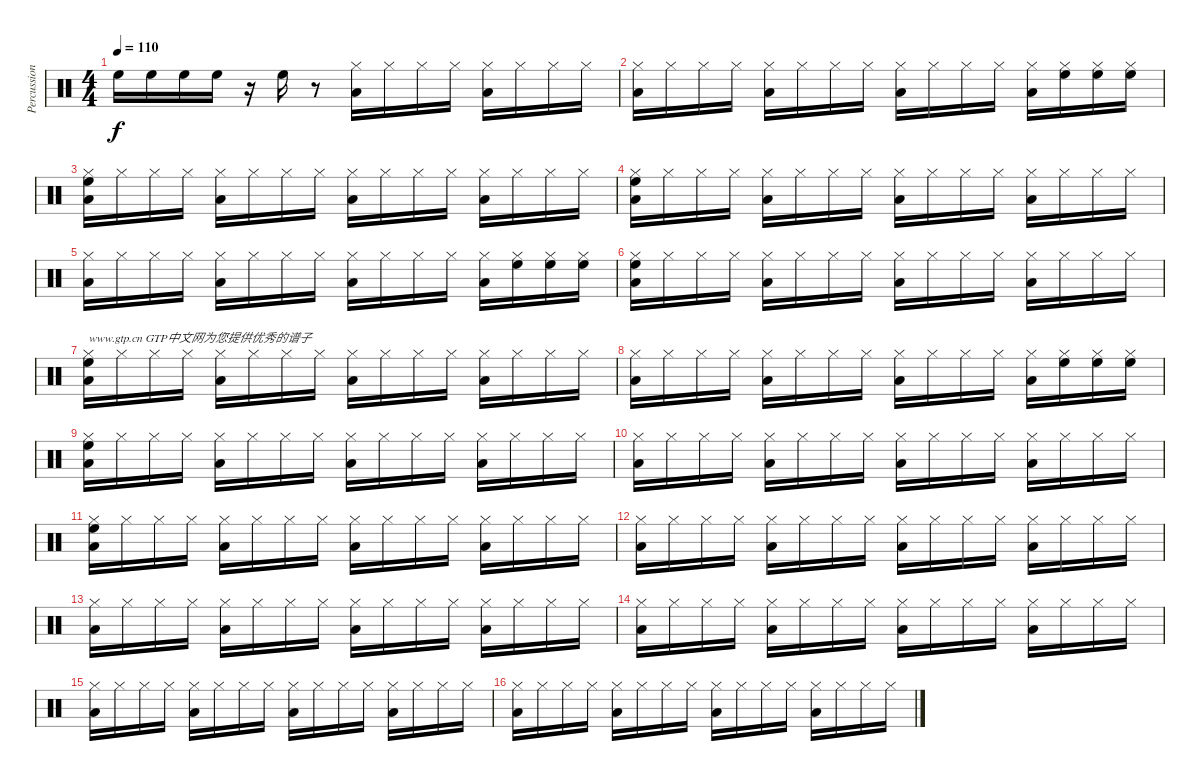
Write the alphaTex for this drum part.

\track ("Percussions" "Percussion") {instrument percussion}
\staff {score}
\articulation defaults
\ts (4 4)
\tempo 110
\clef neutral
\ks c "High Floor Tom (hit)".16{dy f} "High Floor Tom (hit)".16 "High Floor Tom (hit)".16 "High Floor Tom (hit)".16
r.16 "High Floor Tom (hit)".16 r.8 ("Hi-Hat (closed)" "Low Floor Tom (hit)").16 "Hi-Hat (closed)".16 "Hi-Hat (closed)".16 "Hi-Hat (closed)".16 ("Hi-Hat (closed)" "Low Floor Tom (hit)").16 "Hi-Hat (closed)".16 "Hi-Hat (closed)".16 "Hi-Hat (closed)".16 |
("Hi-Hat (closed)" "Low Floor Tom (hit)").16 "Hi-Hat (closed)".16 "Hi-Hat (closed)".16 "Hi-Hat (closed)".16 ("Hi-Hat (closed)" "Low Floor Tom (hit)").16 "Hi-Hat (closed)".16 "Hi-Hat (closed)".16 "Hi-Hat (closed)".16 ("Hi-Hat (closed)" "Low Floor Tom (hit)").16 "Hi-Hat (closed)".16 "Hi-Hat (closed)".16 "Hi-Hat (closed)".16 ("Hi-Hat (closed)" "Low Floor Tom (hit)").16 ("Hi-Hat (closed)" "High Floor Tom (hit)").16 ("Hi-Hat (closed)" "High Floor Tom (hit)").16 ("Hi-Hat (closed)" "High Floor Tom (hit)").16 |
("Hi-Hat (closed)" "Low Floor Tom (hit)" "High Floor Tom (hit)").16 "Hi-Hat (closed)".16 "Hi-Hat (closed)".16 "Hi-Hat (closed)".16 ("Hi-Hat (closed)" "Low Floor Tom (hit)").16 "Hi-Hat (closed)".16 "Hi-Hat (closed)".16 "Hi-Hat (closed)".16 ("Hi-Hat (closed)" "Low Floor Tom (hit)").16 "Hi-Hat (closed)".16 "Hi-Hat (closed)".16 "Hi-Hat (closed)".16 ("Hi-Hat (closed)" "Low Floor Tom (hit)").16 "Hi-Hat (closed)".16 "Hi-Hat (closed)".16 "Hi-Hat (closed)".16 |
("Hi-Hat (closed)" "Low Floor Tom (hit)" "High Floor Tom (hit)").16 "Hi-Hat (closed)".16 "Hi-Hat (closed)".16 "Hi-Hat (closed)".16 ("Hi-Hat (closed)" "Low Floor Tom (hit)").16 "Hi-Hat (closed)".16 "Hi-Hat (closed)".16 "Hi-Hat (closed)".16 ("Hi-Hat (closed)" "Low Floor Tom (hit)").16 "Hi-Hat (closed)".16 "Hi-Hat (closed)".16 "Hi-Hat (closed)".16 ("Hi-Hat (closed)" "Low Floor Tom (hit)").16 "Hi-Hat (closed)".16 "Hi-Hat (closed)".16 "Hi-Hat (closed)".16 |
("Hi-Hat (closed)" "Low Floor Tom (hit)").16 "Hi-Hat (closed)".16 "Hi-Hat (closed)".16 "Hi-Hat (closed)".16 ("Hi-Hat (closed)" "Low Floor Tom (hit)").16 "Hi-Hat (closed)".16 "Hi-Hat (closed)".16 "Hi-Hat (closed)".16 ("Hi-Hat (closed)" "Low Floor Tom (hit)").16 "Hi-Hat (closed)".16 "Hi-Hat (closed)".16 "Hi-Hat (closed)".16 ("Hi-Hat (closed)" "Low Floor Tom (hit)").16 ("Hi-Hat (closed)" "High Floor Tom (hit)").16 ("Hi-Hat (closed)" "High Floor Tom (hit)").16 ("Hi-Hat (closed)" "High Floor Tom (hit)").16 |
("Hi-Hat (closed)" "Low Floor Tom (hit)" "High Floor Tom (hit)").16 "Hi-Hat (closed)".16 "Hi-Hat (closed)".16 "Hi-Hat (closed)".16 ("Hi-Hat (closed)" "Low Floor Tom (hit)").16 "Hi-Hat (closed)".16 "Hi-Hat (closed)".16 "Hi-Hat (closed)".16 ("Hi-Hat (closed)" "Low Floor Tom (hit)").16 "Hi-Hat (closed)".16 "Hi-Hat (closed)".16 "Hi-Hat (closed)".16 ("Hi-Hat (closed)" "Low Floor Tom (hit)").16 "Hi-Hat (closed)".16 "Hi-Hat (closed)".16 "Hi-Hat (closed)".16 |
("Hi-Hat (closed)" "Low Floor Tom (hit)" "High Floor Tom (hit)").16{txt "www.gtp.cn GTP中文网为您提供优秀的谱子"} "Hi-Hat (closed)".16 "Hi-Hat (closed)".16 "Hi-Hat (closed)".16 ("Hi-Hat (closed)" "Low Floor Tom (hit)").16 "Hi-Hat (closed)".16 "Hi-Hat (closed)".16 "Hi-Hat (closed)".16 ("Hi-Hat (closed)" "Low Floor Tom (hit)").16 "Hi-Hat (closed)".16 "Hi-Hat (closed)".16 "Hi-Hat (closed)".16 ("Hi-Hat (closed)" "Low Floor Tom (hit)").16 "Hi-Hat (closed)".16 "Hi-Hat (closed)".16 "Hi-Hat (closed)".16 |
("Hi-Hat (closed)" "Low Floor Tom (hit)").16 "Hi-Hat (closed)".16 "Hi-Hat (closed)".16 "Hi-Hat (closed)".16 ("Hi-Hat (closed)" "Low Floor Tom (hit)").16 "Hi-Hat (closed)".16 "Hi-Hat (closed)".16 "Hi-Hat (closed)".16 ("Hi-Hat (closed)" "Low Floor Tom (hit)").16 "Hi-Hat (closed)".16 "Hi-Hat (closed)".16 "Hi-Hat (closed)".16 ("Hi-Hat (closed)" "Low Floor Tom (hit)").16 ("Hi-Hat (closed)" "High Floor Tom (hit)").16 ("Hi-Hat (closed)" "High Floor Tom (hit)").16 ("Hi-Hat (closed)" "High Floor Tom (hit)").16 |
("Hi-Hat (closed)" "Low Floor Tom (hit)" "High Floor Tom (hit)").16 "Hi-Hat (closed)".16 "Hi-Hat (closed)".16 "Hi-Hat (closed)".16 ("Hi-Hat (closed)" "Low Floor Tom (hit)").16 "Hi-Hat (closed)".16 "Hi-Hat (closed)".16 "Hi-Hat (closed)".16 ("Hi-Hat (closed)" "Low Floor Tom (hit)").16 "Hi-Hat (closed)".16 "Hi-Hat (closed)".16 "Hi-Hat (closed)".16 ("Hi-Hat (closed)" "Low Floor Tom (hit)").16 "Hi-Hat (closed)".16 "Hi-Hat (closed)".16 "Hi-Hat (closed)".16 |
("Hi-Hat (closed)" "Low Floor Tom (hit)").16 "Hi-Hat (closed)".16 "Hi-Hat (closed)".16 "Hi-Hat (closed)".16 ("Hi-Hat (closed)" "Low Floor Tom (hit)").16 "Hi-Hat (closed)".16 "Hi-Hat (closed)".16 "Hi-Hat (closed)".16 ("Hi-Hat (closed)" "Low Floor Tom (hit)").16 "Hi-Hat (closed)".16 "Hi-Hat (closed)".16 "Hi-Hat (closed)".16 ("Hi-Hat (closed)" "Low Floor Tom (hit)").16 "Hi-Hat (closed)".16 "Hi-Hat (closed)".16 "Hi-Hat (closed)".16 |
("Hi-Hat (closed)" "Low Floor Tom (hit)" "High Floor Tom (hit)").16 "Hi-Hat (closed)".16 "Hi-Hat (closed)".16 "Hi-Hat (closed)".16 ("Hi-Hat (closed)" "Low Floor Tom (hit)").16 "Hi-Hat (closed)".16 "Hi-Hat (closed)".16 "Hi-Hat (closed)".16 ("Hi-Hat (closed)" "Low Floor Tom (hit)").16 "Hi-Hat (closed)".16 "Hi-Hat (closed)".16 "Hi-Hat (closed)".16 ("Hi-Hat (closed)" "Low Floor Tom (hit)").16 "Hi-Hat (closed)".16 "Hi-Hat (closed)".16 "Hi-Hat (closed)".16 |
("Hi-Hat (closed)" "Low Floor Tom (hit)").16 "Hi-Hat (closed)".16 "Hi-Hat (closed)".16 "Hi-Hat (closed)".16 ("Hi-Hat (closed)" "Low Floor Tom (hit)").16 "Hi-Hat (closed)".16 "Hi-Hat (closed)".16 "Hi-Hat (closed)".16 ("Hi-Hat (closed)" "Low Floor Tom (hit)").16 "Hi-Hat (closed)".16 "Hi-Hat (closed)".16 "Hi-Hat (closed)".16 ("Hi-Hat (closed)" "Low Floor Tom (hit)").16 "Hi-Hat (closed)".16 "Hi-Hat (closed)".16 "Hi-Hat (closed)".16 |
("Hi-Hat (closed)" "Low Floor Tom (hit)").16 "Hi-Hat (closed)".16 "Hi-Hat (closed)".16 "Hi-Hat (closed)".16 ("Hi-Hat (closed)" "Low Floor Tom (hit)").16 "Hi-Hat (closed)".16 "Hi-Hat (closed)".16 "Hi-Hat (closed)".16 ("Hi-Hat (closed)" "Low Floor Tom (hit)").16 "Hi-Hat (closed)".16 "Hi-Hat (closed)".16 "Hi-Hat (closed)".16 ("Hi-Hat (closed)" "Low Floor Tom (hit)").16 "Hi-Hat (closed)".16 "Hi-Hat (closed)".16 "Hi-Hat (closed)".16 |
("Hi-Hat (closed)" "Low Floor Tom (hit)").16 "Hi-Hat (closed)".16 "Hi-Hat (closed)".16 "Hi-Hat (closed)".16 ("Hi-Hat (closed)" "Low Floor Tom (hit)").16 "Hi-Hat (closed)".16 "Hi-Hat (closed)".16 "Hi-Hat (closed)".16 ("Hi-Hat (closed)" "Low Floor Tom (hit)").16 "Hi-Hat (closed)".16 "Hi-Hat (closed)".16 "Hi-Hat (closed)".16 ("Hi-Hat (closed)" "Low Floor Tom (hit)").16 "Hi-Hat (closed)".16 "Hi-Hat (closed)".16 "Hi-Hat (closed)".16 |
("Hi-Hat (closed)" "Low Floor Tom (hit)").16 "Hi-Hat (closed)".16 "Hi-Hat (closed)".16 "Hi-Hat (closed)".16 ("Hi-Hat (closed)" "Low Floor Tom (hit)").16 "Hi-Hat (closed)".16 "Hi-Hat (closed)".16 "Hi-Hat (closed)".16 ("Hi-Hat (closed)" "Low Floor Tom (hit)").16 "Hi-Hat (closed)".16 "Hi-Hat (closed)".16 "Hi-Hat (closed)".16 ("Hi-Hat (closed)" "Low Floor Tom (hit)").16 "Hi-Hat (closed)".16 "Hi-Hat (closed)".16 "Hi-Hat (closed)".16 |
("Hi-Hat (closed)" "Low Floor Tom (hit)").16 "Hi-Hat (closed)".16 "Hi-Hat (closed)".16 "Hi-Hat (closed)".16 ("Hi-Hat (closed)" "Low Floor Tom (hit)").16 "Hi-Hat (closed)".16 "Hi-Hat (closed)".16 "Hi-Hat (closed)".16 ("Hi-Hat (closed)" "Low Floor Tom (hit)").16 "Hi-Hat (closed)".16 "Hi-Hat (closed)".16 "Hi-Hat (closed)".16 ("Hi-Hat (closed)" "Low Floor Tom (hit)").16 "Hi-Hat (closed)".16 "Hi-Hat (closed)".16 "Hi-Hat (closed)".16
